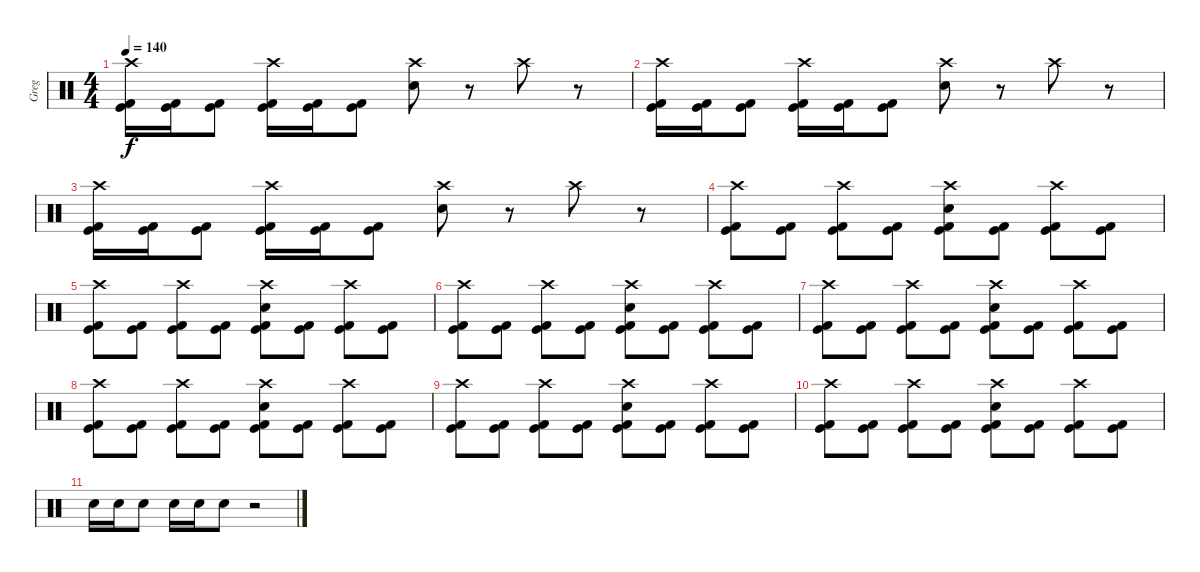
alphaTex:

\track ("Greg" "Greg") {instrument percussion}
\staff {score}
\articulation defaults
\ts (4 4)
\tempo 140
\clef neutral
\ks c
("Crash high (hit)" "Kick (hit)" "Kick (hit) 2").16{dy f} ("Kick (hit)" "Kick (hit) 2").16 ("Kick (hit)" "Kick (hit) 2").8 ("Crash high (hit)" "Kick (hit)" "Kick (hit) 2").16 ("Kick (hit)" "Kick (hit) 2").16 ("Kick (hit)" "Kick (hit) 2").8 ("Crash high (hit)" "Snare (hit) 2").8 r.8 "Crash high (hit)".8 r.8 |
("Crash high (hit)" "Kick (hit)" "Kick (hit) 2").16 ("Kick (hit)" "Kick (hit) 2").16 ("Kick (hit)" "Kick (hit) 2").8 ("Crash high (hit)" "Kick (hit)" "Kick (hit) 2").16 ("Kick (hit)" "Kick (hit) 2").16 ("Kick (hit)" "Kick (hit) 2").8 ("Crash high (hit)" "Snare (hit) 2").8 r.8 "Crash high (hit)".8 r.8 |
("Crash high (hit)" "Kick (hit)" "Kick (hit) 2").16 ("Kick (hit)" "Kick (hit) 2").16 ("Kick (hit)" "Kick (hit) 2").8 ("Crash high (hit)" "Kick (hit)" "Kick (hit) 2").16 ("Kick (hit)" "Kick (hit) 2").16 ("Kick (hit)" "Kick (hit) 2").8 ("Crash high (hit)" "Snare (hit) 2").8 r.8 "Crash high (hit)".8 r.8 |
("Crash high (hit)" "Kick (hit)" "Kick (hit) 2").8 ("Kick (hit)" "Kick (hit) 2").8 ("Crash high (hit)" "Kick (hit)" "Kick (hit) 2").8 ("Kick (hit)" "Kick (hit) 2").8 ("Crash high (hit)" "Snare (hit) 2" "Kick (hit)" "Kick (hit) 2").8 ("Kick (hit)" "Kick (hit) 2").8 ("Crash high (hit)" "Kick (hit)" "Kick (hit) 2").8 ("Kick (hit)" "Kick (hit) 2").8 |
("Crash high (hit)" "Kick (hit)" "Kick (hit) 2").8 ("Kick (hit)" "Kick (hit) 2").8 ("Crash high (hit)" "Kick (hit)" "Kick (hit) 2").8 ("Kick (hit)" "Kick (hit) 2").8 ("Crash high (hit)" "Snare (hit) 2" "Kick (hit)" "Kick (hit) 2").8 ("Kick (hit)" "Kick (hit) 2").8 ("Crash high (hit)" "Kick (hit)" "Kick (hit) 2").8 ("Kick (hit)" "Kick (hit) 2").8 |
("Crash high (hit)" "Kick (hit)" "Kick (hit) 2").8 ("Kick (hit)" "Kick (hit) 2").8 ("Crash high (hit)" "Kick (hit)" "Kick (hit) 2").8 ("Kick (hit)" "Kick (hit) 2").8 ("Crash high (hit)" "Snare (hit) 2" "Kick (hit)" "Kick (hit) 2").8 ("Kick (hit)" "Kick (hit) 2").8 ("Crash high (hit)" "Kick (hit)" "Kick (hit) 2").8 ("Kick (hit)" "Kick (hit) 2").8 |
("Crash high (hit)" "Kick (hit)" "Kick (hit) 2").8 ("Kick (hit)" "Kick (hit) 2").8 ("Crash high (hit)" "Kick (hit)" "Kick (hit) 2").8 ("Kick (hit)" "Kick (hit) 2").8 ("Crash high (hit)" "Snare (hit) 2" "Kick (hit)" "Kick (hit) 2").8 ("Kick (hit)" "Kick (hit) 2").8 ("Crash high (hit)" "Kick (hit)" "Kick (hit) 2").8 ("Kick (hit)" "Kick (hit) 2").8 |
("Crash high (hit)" "Kick (hit)" "Kick (hit) 2").8 ("Kick (hit)" "Kick (hit) 2").8 ("Crash high (hit)" "Kick (hit)" "Kick (hit) 2").8 ("Kick (hit)" "Kick (hit) 2").8 ("Crash high (hit)" "Snare (hit) 2" "Kick (hit)" "Kick (hit) 2").8 ("Kick (hit)" "Kick (hit) 2").8 ("Crash high (hit)" "Kick (hit)" "Kick (hit) 2").8 ("Kick (hit)" "Kick (hit) 2").8 |
("Crash high (hit)" "Kick (hit)" "Kick (hit) 2").8 ("Kick (hit)" "Kick (hit) 2").8 ("Crash high (hit)" "Kick (hit)" "Kick (hit) 2").8 ("Kick (hit)" "Kick (hit) 2").8 ("Crash high (hit)" "Snare (hit) 2" "Kick (hit)" "Kick (hit) 2").8 ("Kick (hit)" "Kick (hit) 2").8 ("Crash high (hit)" "Kick (hit)" "Kick (hit) 2").8 ("Kick (hit)" "Kick (hit) 2").8 |
("Crash high (hit)" "Kick (hit)" "Kick (hit) 2").8 ("Kick (hit)" "Kick (hit) 2").8 ("Crash high (hit)" "Kick (hit)" "Kick (hit) 2").8 ("Kick (hit)" "Kick (hit) 2").8 ("Crash high (hit)" "Snare (hit) 2" "Kick (hit)" "Kick (hit) 2").8 ("Kick (hit)" "Kick (hit) 2").8 ("Crash high (hit)" "Kick (hit)" "Kick (hit) 2").8 ("Kick (hit)" "Kick (hit) 2").8 |
"Snare (hit) 2".16 "Snare (hit) 2".16 "Snare (hit) 2".8 "Snare (hit) 2".16 "Snare (hit) 2".16 "Snare (hit) 2".8 r.2
